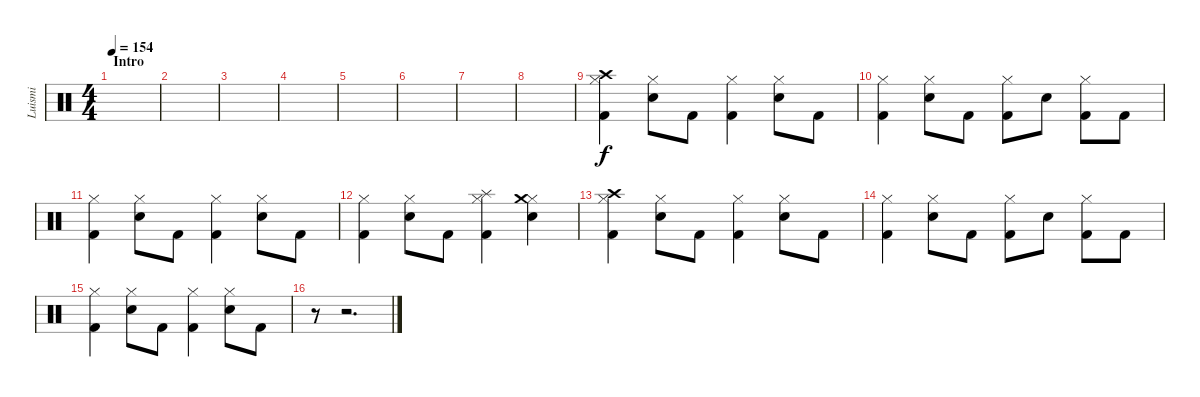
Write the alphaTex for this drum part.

\track ("Luismi" "Luismi") {instrument percussion}
\staff {score}
\articulation defaults
\ts (4 4)
\section ("" "Intro")
\tempo 154
\clef neutral
\ks c
|
|
|
|
|
|
|
|
("Kick (hit) 2" "Hi-Hat (closed)" "Crash high (hit)").4 ("Snare (hit) 2" "Hi-Hat (closed)").8 "Kick (hit) 2".8 ("Kick (hit) 2" "Hi-Hat (closed)").4 ("Snare (hit) 2" "Hi-Hat (closed)").8 "Kick (hit) 2".8 |
("Kick (hit) 2" "Hi-Hat (closed)").4 ("Snare (hit) 2" "Hi-Hat (closed)").8 "Kick (hit) 2".8 ("Kick (hit) 2" "Hi-Hat (closed)").8 "Snare (hit) 2".8 ("Kick (hit) 2" "Hi-Hat (closed)").8 "Kick (hit) 2".8 |
("Kick (hit) 2" "Hi-Hat (closed)").4 ("Snare (hit) 2" "Hi-Hat (closed)").8 "Kick (hit) 2".8 ("Kick (hit) 2" "Hi-Hat (closed)").4 ("Snare (hit) 2" "Hi-Hat (closed)").8 "Kick (hit) 2".8 |
("Kick (hit) 2" "Hi-Hat (closed)").4 ("Snare (hit) 2" "Hi-Hat (closed)").8 "Kick (hit) 2".8 ("Kick (hit) 2" "Hi-Hat (closed)" "Splash (hit)").4 ("Snare (hit) 2" "Hi-Hat (closed)" "Crash medium (hit)").4 |
("Kick (hit) 2" "Hi-Hat (closed)" "Crash high (hit)").4 ("Snare (hit) 2" "Hi-Hat (closed)").8 "Kick (hit) 2".8 ("Kick (hit) 2" "Hi-Hat (closed)").4 ("Snare (hit) 2" "Hi-Hat (closed)").8 "Kick (hit) 2".8 |
("Kick (hit) 2" "Hi-Hat (closed)").4 ("Snare (hit) 2" "Hi-Hat (closed)").8 "Kick (hit) 2".8 ("Kick (hit) 2" "Hi-Hat (closed)").8 "Snare (hit) 2".8 ("Kick (hit) 2" "Hi-Hat (closed)").8 "Kick (hit) 2".8 |
("Kick (hit) 2" "Hi-Hat (closed)").4 ("Snare (hit) 2" "Hi-Hat (closed)").8 "Kick (hit) 2".8 ("Kick (hit) 2" "Hi-Hat (closed)").4 ("Snare (hit) 2" "Hi-Hat (closed)").8 "Kick (hit) 2".8 |
r.8 r.2{d}
